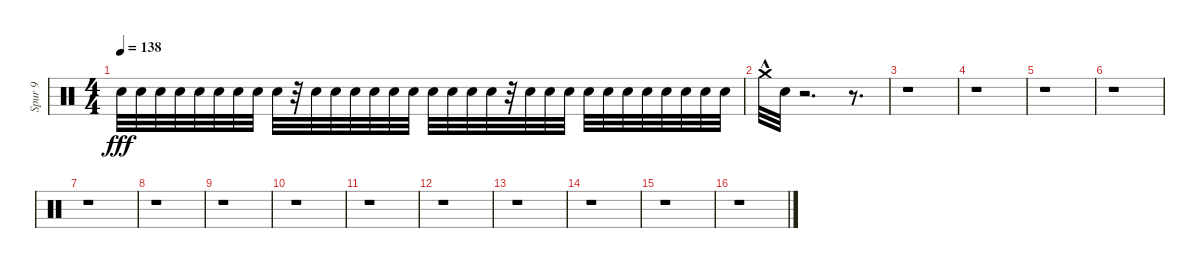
\track ("Spur 9" "Spur 9") {instrument percussion}
\staff {score}
\articulation defaults
\ts (4 4)
\tempo 138
\clef neutral
\ks c "Electric Snare (hit)".32{dy fff} "Electric Snare (hit)".32{volume 5} "Electric Snare (hit)".32{volume 6} "Electric Snare (hit)".32{volume 6} "Electric Snare (hit)".32{volume 6} "Electric Snare (hit)".32{volume 6} "Electric Snare (hit)".32{volume 6} "Electric Snare (hit)".32{volume 7} "Electric Snare (hit)".32{volume 7}
r.32 "Electric Snare (hit)".32{volume 7} "Electric Snare (hit)".32{volume 7} "Electric Snare (hit)".32{volume 8} "Electric Snare (hit)".32{volume 8} "Electric Snare (hit)".32{volume 8} "Electric Snare (hit)".32{volume 8} "Electric Snare (hit)".32{volume 8} "Electric Snare (hit)".32{volume 8} "Electric Snare (hit)".32{volume 9} "Electric Snare (hit)".32{volume 9} r.32 "Electric Snare (hit)".32{volume 9} "Electric Snare (hit)".32{volume 9} "Electric Snare (hit)".32{volume 10} "Electric Snare (hit)".32{volume 10} "Electric Snare (hit)".32{volume 10} "Electric Snare (hit)".32 "Electric Snare (hit)".32{volume 10} "Electric Snare (hit)".32{volume 10} "Electric Snare (hit)".32{volume 10} "Electric Snare (hit)".32{volume 11} "Electric Snare (hit)".32{volume 11} |
"Crash medium (hit)"{hac}.32{volume 11} "Electric Snare (hit)".32 r.2{d} r.8{d} |
r.1 |
r.1 |
r.1 |
r.1 |
r.1 |
r.1 |
r.1 |
r.1 |
r.1 |
r.1 |
r.1 |
r.1 |
r.1 |
r.1
